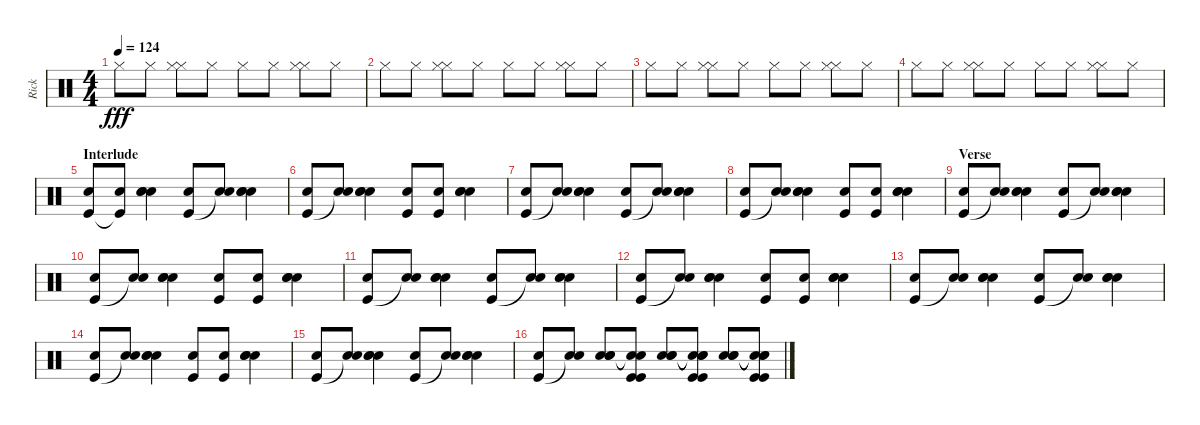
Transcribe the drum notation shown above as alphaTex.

\track ("Rick" "Rick") {instrument percussion}
\staff {score}
\articulation defaults
\ts (4 4)
\tempo 124
\clef neutral
\ks c "Hi-Hat (closed)".8{dy fff} "Hi-Hat (closed)".8
("Hi-Hat (closed)" "Hi-Hat (closed)").8 "Hi-Hat (closed)".8 "Hi-Hat (closed)".8 "Hi-Hat (closed)".8 ("Hi-Hat (closed)" "Hi-Hat (closed)").8 "Hi-Hat (closed)".8 |
"Hi-Hat (closed)".8 "Hi-Hat (closed)".8 ("Hi-Hat (closed)" "Hi-Hat (closed)").8 "Hi-Hat (closed)".8 "Hi-Hat (closed)".8 "Hi-Hat (closed)".8 ("Hi-Hat (closed)" "Hi-Hat (closed)").8 "Hi-Hat (closed)".8 |
"Hi-Hat (closed)".8 "Hi-Hat (closed)".8 ("Hi-Hat (closed)" "Hi-Hat (closed)").8 "Hi-Hat (closed)".8 "Hi-Hat (closed)".8 "Hi-Hat (closed)".8 ("Hi-Hat (closed)" "Hi-Hat (closed)").8 "Hi-Hat (closed)".8 |
"Hi-Hat (closed)".8 "Hi-Hat (closed)".8 ("Hi-Hat (closed)" "Hi-Hat (closed)").8 "Hi-Hat (closed)".8 "Hi-Hat (closed)".8 "Hi-Hat (closed)".8 ("Hi-Hat (closed)" "Hi-Hat (closed)").8 "Hi-Hat (closed)".8 |
\section ("" "Interlude")
("Kick (hit)" "Snare (hit)").8{volume 11} ("Kick (hit)"{t} "Snare (hit)").8 ("Snare (hit) 2" "Snare (hit) 2" "Snare (hit)").4 ("Kick (hit)" "Snare (hit)").8 ("Snare (hit) 2"{t} "Snare (hit)").8 ("Snare (hit) 2" "Snare (hit) 2" "Snare (hit)").4 |
("Kick (hit)" "Snare (hit)").8 ("Snare (hit) 2"{t} "Snare (hit)").8 ("Snare (hit) 2" "Snare (hit) 2" "Snare (hit)").4 ("Kick (hit)" "Snare (hit)").8 ("Kick (hit)" "Snare (hit)").8 ("Snare (hit) 2" "Snare (hit) 2" "Snare (hit)").4 |
("Kick (hit)" "Snare (hit)").8 ("Snare (hit) 2"{t} "Snare (hit)").8 ("Snare (hit) 2" "Snare (hit) 2" "Snare (hit)").4 ("Kick (hit)" "Snare (hit)").8 ("Snare (hit)"{t} "Snare (hit)").8 ("Snare (hit) 2" "Snare (hit) 2" "Snare (hit)").4 |
("Kick (hit)" "Snare (hit)").8 ("Snare (hit) 2"{t} "Snare (hit)").8 ("Snare (hit) 2" "Snare (hit) 2" "Snare (hit)").4 ("Kick (hit)" "Snare (hit)").8 ("Kick (hit)" "Snare (hit)").8 ("Snare (hit) 2" "Snare (hit) 2" "Snare (hit)").4 |
\section ("" "Verse")
("Kick (hit)" "Snare (hit)").8 ("Snare (hit) 2"{t} "Snare (hit)").8 ("Snare (hit) 2" "Snare (hit) 2" "Snare (hit)").4 ("Kick (hit)" "Snare (hit)").8 ("Snare (hit)"{t} "Snare (hit)").8 ("Snare (hit) 2" "Snare (hit) 2" "Snare (hit)").4 |
("Kick (hit)" "Snare (hit)").8 ("Snare (hit) 2"{t} "Snare (hit)").8 ("Snare (hit) 2" "Snare (hit) 2" "Snare (hit)").4 ("Kick (hit)" "Snare (hit)").8 ("Kick (hit)" "Snare (hit)").8 ("Snare (hit) 2" "Snare (hit) 2" "Snare (hit)").4 |
("Kick (hit)" "Snare (hit)").8 ("Snare (hit) 2"{t} "Snare (hit)").8 ("Snare (hit) 2" "Snare (hit) 2" "Snare (hit)").4 ("Kick (hit)" "Snare (hit)").8 ("Snare (hit)"{t} "Snare (hit)").8 ("Snare (hit) 2" "Snare (hit) 2" "Snare (hit)").4 |
("Kick (hit)" "Snare (hit)").8 ("Snare (hit) 2"{t} "Snare (hit)").8 ("Snare (hit) 2" "Snare (hit) 2" "Snare (hit)").4 ("Kick (hit)" "Snare (hit)").8 ("Kick (hit)" "Snare (hit)").8 ("Snare (hit) 2" "Snare (hit) 2" "Snare (hit)").4 |
("Kick (hit)" "Snare (hit)").8 ("Snare (hit) 2"{t} "Snare (hit)").8 ("Snare (hit) 2" "Snare (hit) 2" "Snare (hit)").4 ("Kick (hit)" "Snare (hit)").8 ("Snare (hit)"{t} "Snare (hit)").8 ("Snare (hit) 2" "Snare (hit) 2" "Snare (hit)").4 |
("Kick (hit)" "Snare (hit)").8 ("Snare (hit) 2"{t} "Snare (hit)").8 ("Snare (hit) 2" "Snare (hit) 2" "Snare (hit)").4 ("Kick (hit)" "Snare (hit)").8 ("Kick (hit)" "Snare (hit)").8 ("Snare (hit) 2" "Snare (hit) 2" "Snare (hit)").4 |
("Kick (hit)" "Snare (hit)").8 ("Snare (hit) 2"{t} "Snare (hit)").8 ("Snare (hit) 2" "Snare (hit) 2" "Snare (hit)").4 ("Kick (hit)" "Snare (hit)").8 ("Snare (hit)"{t} "Snare (hit)").8 ("Snare (hit) 2" "Snare (hit) 2" "Snare (hit)").4 |
("Kick (hit)" "Snare (hit)").8 ("Snare (hit) 2"{t} "Snare (hit)").8 ("Snare (hit) 2" "Snare (hit) 2" "Snare (hit)").8 ("Snare (hit) 2"{t} "Snare (hit) 2"{t} "Kick (hit)" "Kick (hit)").8 ("Snare (hit) 2" "Snare (hit) 2" "Snare (hit) 2").8 ("Snare (hit)"{t} "Snare (hit)"{t} "Snare (hit)"{t} "Kick (hit)" "Kick (hit)").8 ("Snare (hit) 2" "Snare (hit) 2" "Snare (hit) 2").8 ("Snare (hit)"{t} "Snare (hit)"{t} "Snare (hit)"{t} "Kick (hit)" "Kick (hit)").8
